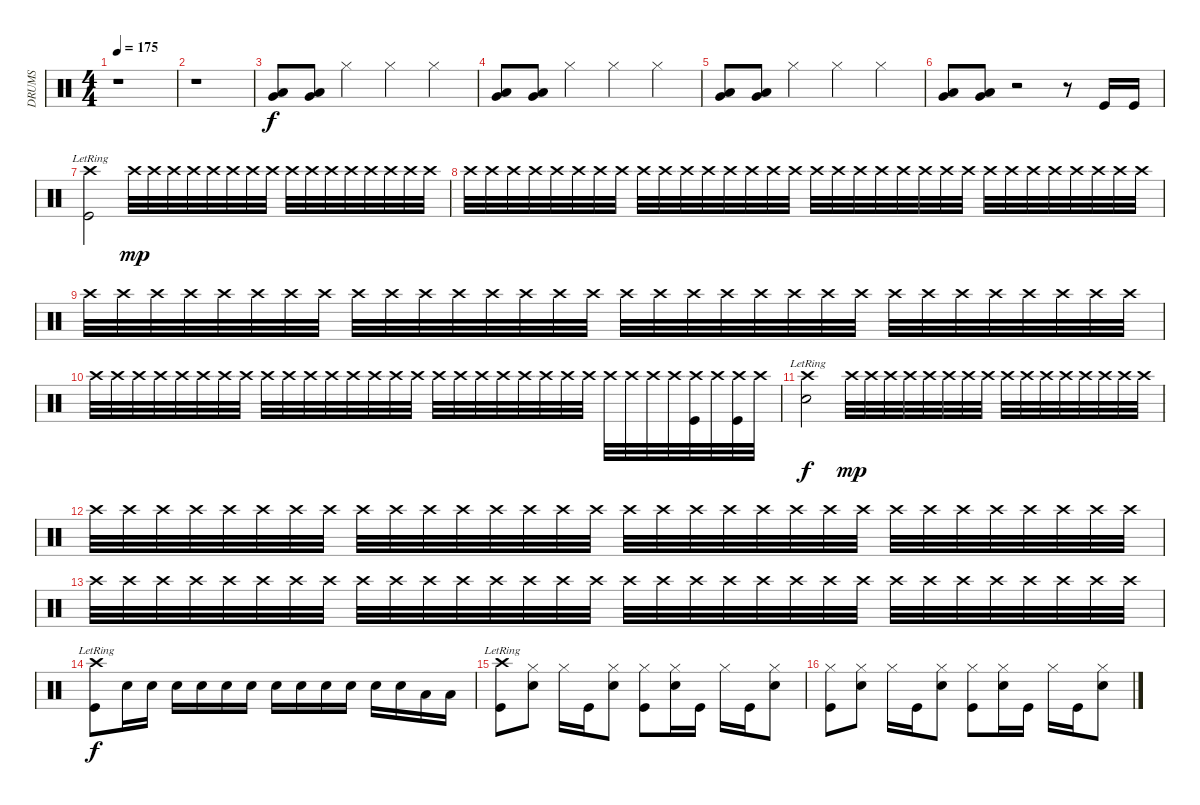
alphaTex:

\track ("DRUMS" "DRUMS") {instrument percussion}
\staff {score}
\articulation defaults
\ts (4 4)
\tempo 175
\clef neutral
\ks c
r.1{dy f} |
r.1 |
("Very Low Tom (hit)" "Low Floor Tom (hit)").8 ("Very Low Tom (hit)" "Low Floor Tom (hit)").8 "Hi-Hat (closed)".4 "Hi-Hat (closed)".4 "Hi-Hat (closed)".4 |
("Very Low Tom (hit)" "Low Floor Tom (hit)").8 ("Very Low Tom (hit)" "Low Floor Tom (hit)").8 "Hi-Hat (closed)".4 "Hi-Hat (closed)".4 "Hi-Hat (closed)".4 |
("Very Low Tom (hit)" "Low Floor Tom (hit)").8 ("Very Low Tom (hit)" "Low Floor Tom (hit)").8 "Hi-Hat (closed)".4 "Hi-Hat (closed)".4 "Hi-Hat (closed)".4 |
("Very Low Tom (hit)" "Low Floor Tom (hit)").8 ("Very Low Tom (hit)" "Low Floor Tom (hit)").8 r.2 r.8 "Kick (hit)".16 "Kick (hit)".16 |
("Crash high (hit)"{lr} "Kick (hit)").2 "Crash high (hit)".32{dy mp} "Crash high (hit)".32 "Crash high (hit)".32 "Crash high (hit)".32 "Crash high (hit)".32 "Crash high (hit)".32 "Crash high (hit)".32 "Crash high (hit)".32 "Crash high (hit)".32 "Crash high (hit)".32 "Crash high (hit)".32 "Crash high (hit)".32 "Crash high (hit)".32 "Crash high (hit)".32 "Crash high (hit)".32 "Crash high (hit)".32 |
"Crash high (hit)".32 "Crash high (hit)".32 "Crash high (hit)".32 "Crash high (hit)".32 "Crash high (hit)".32 "Crash high (hit)".32 "Crash high (hit)".32 "Crash high (hit)".32 "Crash high (hit)".32 "Crash high (hit)".32 "Crash high (hit)".32 "Crash high (hit)".32 "Crash high (hit)".32 "Crash high (hit)".32 "Crash high (hit)".32 "Crash high (hit)".32 "Crash high (hit)".32 "Crash high (hit)".32 "Crash high (hit)".32 "Crash high (hit)".32 "Crash high (hit)".32 "Crash high (hit)".32 "Crash high (hit)".32 "Crash high (hit)".32 "Crash high (hit)".32 "Crash high (hit)".32 "Crash high (hit)".32 "Crash high (hit)".32 "Crash high (hit)".32 "Crash high (hit)".32 "Crash high (hit)".32 "Crash high (hit)".32 |
"Crash high (hit)".32 "Crash high (hit)".32 "Crash high (hit)".32 "Crash high (hit)".32 "Crash high (hit)".32 "Crash high (hit)".32 "Crash high (hit)".32 "Crash high (hit)".32 "Crash high (hit)".32 "Crash high (hit)".32 "Crash high (hit)".32 "Crash high (hit)".32 "Crash high (hit)".32 "Crash high (hit)".32 "Crash high (hit)".32 "Crash high (hit)".32 "Crash high (hit)".32 "Crash high (hit)".32 "Crash high (hit)".32 "Crash high (hit)".32 "Crash high (hit)".32 "Crash high (hit)".32 "Crash high (hit)".32 "Crash high (hit)".32 "Crash high (hit)".32 "Crash high (hit)".32 "Crash high (hit)".32 "Crash high (hit)".32 "Crash high (hit)".32 "Crash high (hit)".32 "Crash high (hit)".32 "Crash high (hit)".32 |
"Crash high (hit)".32 "Crash high (hit)".32 "Crash high (hit)".32 "Crash high (hit)".32 "Crash high (hit)".32 "Crash high (hit)".32 "Crash high (hit)".32 "Crash high (hit)".32 "Crash high (hit)".32 "Crash high (hit)".32 "Crash high (hit)".32 "Crash high (hit)".32 "Crash high (hit)".32 "Crash high (hit)".32 "Crash high (hit)".32 "Crash high (hit)".32 "Crash high (hit)".32 "Crash high (hit)".32 "Crash high (hit)".32 "Crash high (hit)".32 "Crash high (hit)".32 "Crash high (hit)".32 "Crash high (hit)".32 "Crash high (hit)".32 "Crash high (hit)".32 "Crash high (hit)".32 "Crash high (hit)".32 "Crash high (hit)".32 ("Crash high (hit)" "Kick (hit)").32 "Crash high (hit)".32 ("Crash high (hit)" "Kick (hit)").32 "Crash high (hit)".32 |
("Crash high (hit)"{lr} "Snare (hit) 2").2{dy f} "Crash high (hit)".32{dy mp} "Crash high (hit)".32 "Crash high (hit)".32 "Crash high (hit)".32 "Crash high (hit)".32 "Crash high (hit)".32 "Crash high (hit)".32 "Crash high (hit)".32 "Crash high (hit)".32 "Crash high (hit)".32 "Crash high (hit)".32 "Crash high (hit)".32 "Crash high (hit)".32 "Crash high (hit)".32 "Crash high (hit)".32 "Crash high (hit)".32 |
"Crash high (hit)".32 "Crash high (hit)".32 "Crash high (hit)".32 "Crash high (hit)".32 "Crash high (hit)".32 "Crash high (hit)".32 "Crash high (hit)".32 "Crash high (hit)".32 "Crash high (hit)".32 "Crash high (hit)".32 "Crash high (hit)".32 "Crash high (hit)".32 "Crash high (hit)".32 "Crash high (hit)".32 "Crash high (hit)".32 "Crash high (hit)".32 "Crash high (hit)".32 "Crash high (hit)".32 "Crash high (hit)".32 "Crash high (hit)".32 "Crash high (hit)".32 "Crash high (hit)".32 "Crash high (hit)".32 "Crash high (hit)".32 "Crash high (hit)".32 "Crash high (hit)".32 "Crash high (hit)".32 "Crash high (hit)".32 "Crash high (hit)".32 "Crash high (hit)".32 "Crash high (hit)".32 "Crash high (hit)".32 |
"Crash high (hit)".32 "Crash high (hit)".32 "Crash high (hit)".32 "Crash high (hit)".32 "Crash high (hit)".32 "Crash high (hit)".32 "Crash high (hit)".32 "Crash high (hit)".32 "Crash high (hit)".32 "Crash high (hit)".32 "Crash high (hit)".32 "Crash high (hit)".32 "Crash high (hit)".32 "Crash high (hit)".32 "Crash high (hit)".32 "Crash high (hit)".32 "Crash high (hit)".32 "Crash high (hit)".32 "Crash high (hit)".32 "Crash high (hit)".32 "Crash high (hit)".32 "Crash high (hit)".32 "Crash high (hit)".32 "Crash high (hit)".32 "Crash high (hit)".32 "Crash high (hit)".32 "Crash high (hit)".32 "Crash high (hit)".32 "Crash high (hit)".32 "Crash high (hit)".32 "Crash high (hit)".32 "Crash high (hit)".32 |
("Crash high (hit)"{lr} "Kick (hit)").8{dy f} "Snare (hit) 2".16 "Snare (hit) 2".16 "Snare (hit) 2".16 "Snare (hit) 2".16 "Snare (hit) 2".16 "Snare (hit) 2".16 "Snare (hit) 2".16 "Snare (hit) 2".16 "Snare (hit) 2".16 "Snare (hit) 2".16 "Snare (hit) 2".16 "Snare (hit) 2".16 "Low Tom (hit)".16 "Low Tom (hit)".16 |
("Crash high (hit)"{lr} "Kick (hit)").8 ("Hi-Hat (closed)" "Snare (hit) 2").8 "Hi-Hat (closed)".16 "Kick (hit)".16 ("Hi-Hat (closed)" "Snare (hit) 2").8 ("Hi-Hat (closed)" "Kick (hit)").8 ("Hi-Hat (closed)" "Snare (hit) 2").16 "Kick (hit)".16 "Hi-Hat (closed)".16 "Kick (hit)".16 ("Hi-Hat (closed)" "Snare (hit) 2").8 |
("Hi-Hat (closed)" "Kick (hit)").8 ("Hi-Hat (closed)" "Snare (hit) 2").8 "Hi-Hat (closed)".16 "Kick (hit)".16 ("Hi-Hat (closed)" "Snare (hit) 2").8 ("Hi-Hat (closed)" "Kick (hit)").8 ("Hi-Hat (closed)" "Snare (hit) 2").16 "Kick (hit)".16 "Hi-Hat (closed)".16 "Kick (hit)".16 ("Hi-Hat (closed)" "Snare (hit) 2").8
